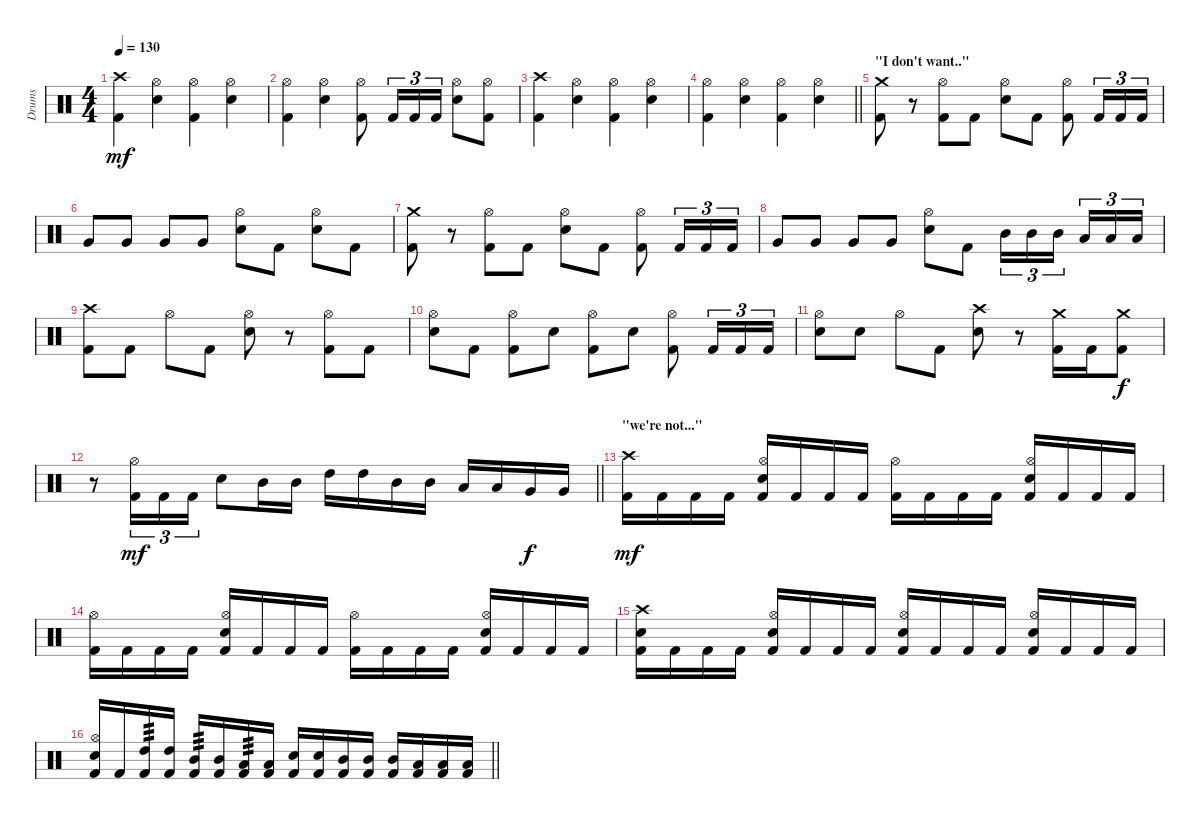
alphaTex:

\track ("Drums" "Drums") {instrument percussion}
\staff {score}
\articulation defaults
\ts (4 4)
\tempo 130
\clef neutral
\ks c
("Crash high (hit)" "Kick (hit) 2").4{dy mf} ("Hi-Hat (open)" "Snare (hit) 2").4 ("Hi-Hat (open)" "Kick (hit) 2").4 ("Hi-Hat (open)" "Snare (hit) 2").4 |
("Hi-Hat (open)" "Kick (hit) 2").4 ("Hi-Hat (open)" "Snare (hit) 2").4 ("Hi-Hat (open)" "Kick (hit) 2").8 "Kick (hit) 2".16{tu (3 2)} "Kick (hit) 2".16{tu (3 2)} "Kick (hit) 2".16{tu (3 2)} ("Hi-Hat (open)" "Snare (hit) 2").8 ("Hi-Hat (open)" "Kick (hit) 2").8 |
("Crash high (hit)" "Kick (hit) 2").4 ("Hi-Hat (open)" "Snare (hit) 2").4 ("Hi-Hat (open)" "Kick (hit) 2").4 ("Hi-Hat (open)" "Snare (hit) 2").4 |
\barLineRight lightlight
("Hi-Hat (open)" "Kick (hit) 2").4 ("Hi-Hat (open)" "Snare (hit) 2").4 ("Hi-Hat (open)" "Kick (hit) 2").4 ("Hi-Hat (open)" "Snare (hit) 2").4 |
\section ("" "\"I don't want..\"")
("Crash medium (hit)" "Kick (hit) 2").8 r.8 ("Hi-Hat (open)" "Kick (hit) 2").8 "Kick (hit) 2".8 ("Hi-Hat (open)" "Snare (hit) 2").8 "Kick (hit) 2".8 ("Hi-Hat (open)" "Kick (hit) 2").8 "Kick (hit) 2".16{tu (3 2)} "Kick (hit) 2".16{tu (3 2)} "Kick (hit) 2".16{tu (3 2)} |
"Very Low Tom (hit)".8 "Very Low Tom (hit)".8 "Very Low Tom (hit)".8 "Very Low Tom (hit)".8 ("Hi-Hat (open)" "Snare (hit) 2").8 "Kick (hit) 2".8 ("Hi-Hat (open)" "Snare (hit) 2").8 "Kick (hit) 2".8 |
("Crash medium (hit)" "Kick (hit) 2").8 r.8 ("Hi-Hat (open)" "Kick (hit) 2").8 "Kick (hit) 2".8 ("Hi-Hat (open)" "Snare (hit) 2").8 "Kick (hit) 2".8 ("Hi-Hat (open)" "Kick (hit) 2").8 "Kick (hit) 2".16{tu (3 2)} "Kick (hit) 2".16{tu (3 2)} "Kick (hit) 2".16{tu (3 2)} |
"Very Low Tom (hit)".8 "Very Low Tom (hit)".8 "Very Low Tom (hit)".8 "Very Low Tom (hit)".8 ("Hi-Hat (open)" "Snare (hit) 2").8 "Kick (hit) 2".8 "Mid Tom (hit)".16{tu (3 2)} "Mid Tom (hit)".16{tu (3 2)} "Mid Tom (hit)".16{tu (3 2)} "Low Tom (hit)".16{tu (3 2)} "Low Tom (hit)".16{tu (3 2)} "Low Tom (hit)".16{tu (3 2)} |
("Crash high (hit)" "Kick (hit) 2").8 "Kick (hit) 2".8 "Hi-Hat (open)".8 "Kick (hit) 2".8 ("Hi-Hat (open)" "Snare (hit) 2").8 r.8 ("Hi-Hat (open)" "Kick (hit) 2").8 "Kick (hit) 2".8 |
("Hi-Hat (open)" "Snare (hit) 2").8 "Kick (hit) 2".8 ("Hi-Hat (open)" "Kick (hit) 2").8 "Snare (hit) 2".8 ("Hi-Hat (open)" "Kick (hit) 2").8 "Snare (hit) 2".8 ("Hi-Hat (open)" "Kick (hit) 2").8 "Kick (hit) 2".16{tu (3 2)} "Kick (hit) 2".16{tu (3 2)} "Kick (hit) 2".16{tu (3 2)} |
("Hi-Hat (open)" "Snare (hit) 2").8 "Snare (hit) 2".8 "Hi-Hat (open)".8 "Kick (hit) 2".8 ("Crash high (hit)" "Snare (hit) 2").8 r.8 ("Crash medium (hit)" "Kick (hit) 2").16 "Kick (hit) 2".16 ("Crash medium (hit)" "Kick (hit) 2").8{dy f} |
\barLineRight lightlight
r.8 ("Hi-Hat (open)" "Kick (hit) 2").16{tu (3 2) dy mf} "Kick (hit) 2".16{tu (3 2)} "Kick (hit) 2".16{tu (3 2)} "Snare (hit) 2".8 "Mid Tom (hit)".16 "Mid Tom (hit)".16 "High Tom (hit)".16 "High Tom (hit)".16 "Mid Tom (hit)".16 "Mid Tom (hit)".16 "Low Tom (hit)".16 "Low Tom (hit)".16 "Very Low Tom (hit)".16{dy f} "Very Low Tom (hit)".16 |
\section ("" "\"we're not...\"")
("Crash high (hit)" "Kick (hit) 2").16{dy mf} "Kick (hit) 2".16 "Kick (hit) 2".16 "Kick (hit) 2".16 ("Hi-Hat (open)" "Snare (hit) 2" "Kick (hit) 2").16 "Kick (hit) 2".16 "Kick (hit) 2".16 "Kick (hit) 2".16 ("Hi-Hat (open)" "Kick (hit) 2").16 "Kick (hit) 2".16 "Kick (hit) 2".16 "Kick (hit) 2".16 ("Hi-Hat (open)" "Snare (hit) 2" "Kick (hit) 2").16 "Kick (hit) 2".16 "Kick (hit) 2".16 "Kick (hit) 2".16 |
("Hi-Hat (open)" "Kick (hit) 2").16 "Kick (hit) 2".16 "Kick (hit) 2".16 "Kick (hit) 2".16 ("Hi-Hat (open)" "Snare (hit) 2" "Kick (hit) 2").16 "Kick (hit) 2".16 "Kick (hit) 2".16 "Kick (hit) 2".16 ("Hi-Hat (open)" "Kick (hit) 2").16 "Kick (hit) 2".16 "Kick (hit) 2".16 "Kick (hit) 2".16 ("Hi-Hat (open)" "Snare (hit) 2" "Kick (hit) 2").16 "Kick (hit) 2".16 "Kick (hit) 2".16 "Kick (hit) 2".16 |
("Crash high (hit)" "Snare (hit) 2" "Kick (hit) 2").16 "Kick (hit) 2".16 "Kick (hit) 2".16 "Kick (hit) 2".16 ("Hi-Hat (open)" "Snare (hit) 2" "Kick (hit) 2").16 "Kick (hit) 2".16 "Kick (hit) 2".16 "Kick (hit) 2".16 ("Hi-Hat (open)" "Snare (hit) 2" "Kick (hit) 2").16 "Kick (hit) 2".16 "Kick (hit) 2".16 "Kick (hit) 2".16 ("Hi-Hat (open)" "Snare (hit) 2" "Kick (hit) 2").16 "Kick (hit) 2".16 "Kick (hit) 2".16 "Kick (hit) 2".16 |
\barLineRight lightlight
("Hi-Hat (open)" "Snare (hit) 2" "Kick (hit) 2").16 "Kick (hit) 2".16 ("High Tom (hit)" "Kick (hit) 2").16{tp 3} ("High Tom (hit)" "Kick (hit) 2").16 ("Mid Tom (hit)" "Kick (hit) 2").16{tp 3} ("Mid Tom (hit)" "Kick (hit) 2").16 ("Low Tom (hit)" "Kick (hit) 2").16{tp 3} ("Low Tom (hit)" "Kick (hit) 2").16 ("Snare (hit) 2" "Kick (hit) 2").16 ("Snare (hit) 2" "Kick (hit) 2").16 ("Mid Tom (hit)" "Kick (hit) 2").16 ("Mid Tom (hit)" "Kick (hit) 2").16 ("Mid Tom (hit)" "Kick (hit) 2").16 ("Low Tom (hit)" "Kick (hit) 2").16 ("Low Tom (hit)" "Kick (hit) 2").16 ("Low Tom (hit)" "Kick (hit) 2").16
